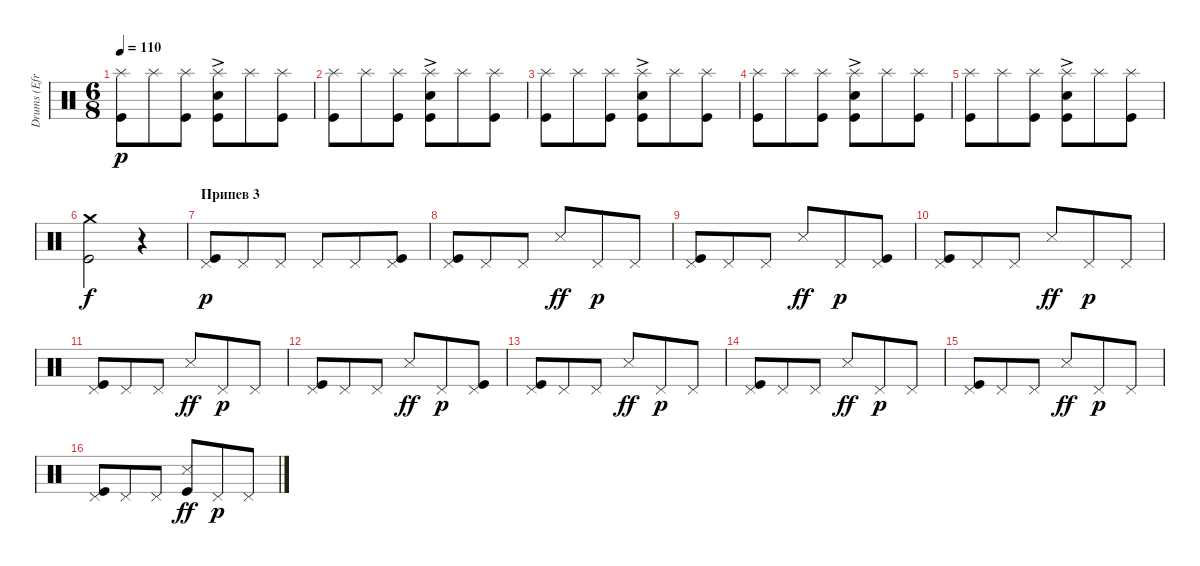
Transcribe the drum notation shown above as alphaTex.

\track ("Drums (Efremov)" "Drums (Efr") {instrument percussion}
\staff {score}
\articulation defaults
\ts (6 8)
\tempo 110
\clef neutral
\ks c
("Splash (hit)" "Kick (hit)").8{dy p} "Splash (hit)".8 ("Kick (hit)" "Splash (hit)").8 ("Electric Snare (hit)" "Kick (hit)" "Splash (hit)"{ac}).8 "Splash (hit)".8 ("Kick (hit)" "Splash (hit)").8 |
("Splash (hit)" "Kick (hit)").8 "Splash (hit)".8 ("Kick (hit)" "Splash (hit)").8 ("Electric Snare (hit)" "Kick (hit)" "Splash (hit)"{ac}).8 "Splash (hit)".8 ("Kick (hit)" "Splash (hit)").8 |
("Splash (hit)" "Kick (hit)").8 "Splash (hit)".8 ("Kick (hit)" "Splash (hit)").8 ("Electric Snare (hit)" "Kick (hit)" "Splash (hit)"{ac}).8 "Splash (hit)".8 ("Kick (hit)" "Splash (hit)").8 |
("Splash (hit)" "Kick (hit)").8 "Splash (hit)".8 ("Kick (hit)" "Splash (hit)").8 ("Electric Snare (hit)" "Kick (hit)" "Splash (hit)"{ac}).8 "Splash (hit)".8 ("Kick (hit)" "Splash (hit)").8 |
("Splash (hit)" "Kick (hit)").8 "Splash (hit)".8 ("Kick (hit)" "Splash (hit)").8 ("Electric Snare (hit)" "Kick (hit)" "Splash (hit)"{ac}).8 "Splash (hit)".8 ("Kick (hit)" "Splash (hit)").8 |
("Crash medium (hit)" "Kick (hit)").2{dy f} r.4 |
\section ("" "Припев 3")
("Pedal Hi-Hat (hit)" "Kick (hit)").8{dy p} "Pedal Hi-Hat (hit)".8 "Pedal Hi-Hat (hit)".8 "Pedal Hi-Hat (hit)".8 "Pedal Hi-Hat (hit)".8 ("Kick (hit)" "Pedal Hi-Hat (hit)").8 |
("Pedal Hi-Hat (hit)" "Kick (hit)").8 "Pedal Hi-Hat (hit)".8 "Pedal Hi-Hat (hit)".8 "Snare (side stick) 3".8{dy ff} "Pedal Hi-Hat (hit)".8{dy p} "Pedal Hi-Hat (hit)".8 |
("Pedal Hi-Hat (hit)" "Kick (hit)").8 "Pedal Hi-Hat (hit)".8 "Pedal Hi-Hat (hit)".8 "Snare (side stick) 3".8{dy ff} "Pedal Hi-Hat (hit)".8{dy p} ("Kick (hit)" "Pedal Hi-Hat (hit)").8 |
("Pedal Hi-Hat (hit)" "Kick (hit)").8 "Pedal Hi-Hat (hit)".8 "Pedal Hi-Hat (hit)".8 "Snare (side stick) 3".8{dy ff} "Pedal Hi-Hat (hit)".8{dy p} "Pedal Hi-Hat (hit)".8 |
("Pedal Hi-Hat (hit)" "Kick (hit)").8 "Pedal Hi-Hat (hit)".8 "Pedal Hi-Hat (hit)".8 "Snare (side stick) 3".8{dy ff} "Pedal Hi-Hat (hit)".8{dy p} "Pedal Hi-Hat (hit)".8 |
("Pedal Hi-Hat (hit)" "Kick (hit)").8 "Pedal Hi-Hat (hit)".8 "Pedal Hi-Hat (hit)".8 "Snare (side stick) 3".8{dy ff} "Pedal Hi-Hat (hit)".8{dy p} ("Kick (hit)" "Pedal Hi-Hat (hit)").8 |
("Pedal Hi-Hat (hit)" "Kick (hit)").8 "Pedal Hi-Hat (hit)".8 "Pedal Hi-Hat (hit)".8 "Snare (side stick) 3".8{dy ff} "Pedal Hi-Hat (hit)".8{dy p} "Pedal Hi-Hat (hit)".8 |
("Pedal Hi-Hat (hit)" "Kick (hit)").8 "Pedal Hi-Hat (hit)".8 "Pedal Hi-Hat (hit)".8 "Snare (side stick) 3".8{dy ff} "Pedal Hi-Hat (hit)".8{dy p} "Pedal Hi-Hat (hit)".8 |
("Pedal Hi-Hat (hit)" "Kick (hit)").8 "Pedal Hi-Hat (hit)".8 "Pedal Hi-Hat (hit)".8 "Snare (side stick) 3".8{dy ff} "Pedal Hi-Hat (hit)".8{dy p} "Pedal Hi-Hat (hit)".8 |
("Pedal Hi-Hat (hit)" "Kick (hit)").8 "Pedal Hi-Hat (hit)".8 "Pedal Hi-Hat (hit)".8 ("Kick (hit)" "Snare (side stick) 3").8{dy ff} "Pedal Hi-Hat (hit)".8{dy p} "Pedal Hi-Hat (hit)".8
